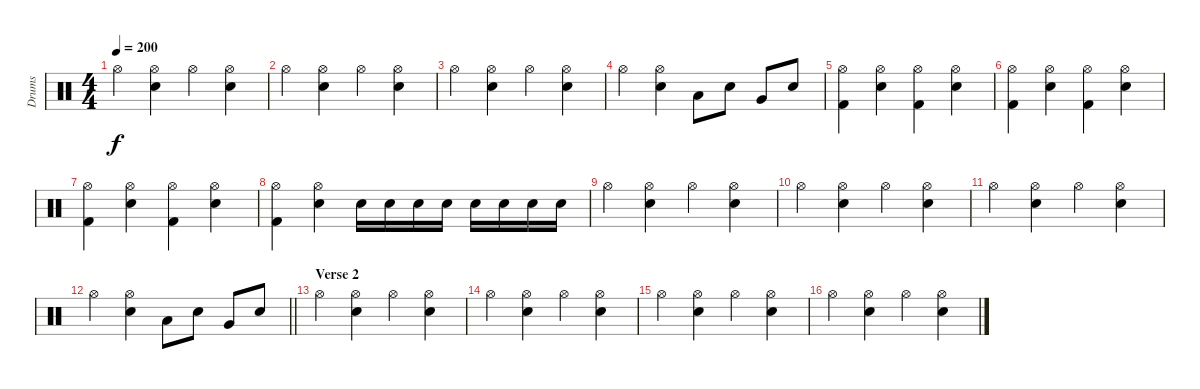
\track ("Drums" "Drums") {instrument percussion}
\staff {score}
\articulation defaults
\ts (4 4)
\tempo 200
\clef neutral
\ks c "Hi-Hat (open)".4{dy f}
("Hi-Hat (open)" "Snare (hit) 2").4 "Hi-Hat (open)".4 ("Hi-Hat (open)" "Snare (hit) 2").4 |
"Hi-Hat (open)".4 ("Hi-Hat (open)" "Snare (hit) 2").4 "Hi-Hat (open)".4 ("Hi-Hat (open)" "Snare (hit) 2").4 |
"Hi-Hat (open)".4 ("Hi-Hat (open)" "Snare (hit) 2").4 "Hi-Hat (open)".4 ("Hi-Hat (open)" "Snare (hit) 2").4 |
"Hi-Hat (open)".4 ("Hi-Hat (open)" "Snare (hit) 2").4 "Low Floor Tom (hit)".8 "Snare (hit) 2".8 "Very Low Tom (hit)".8 "Snare (hit) 2".8 |
("Hi-Hat (open)" "Kick (hit) 2").4 ("Hi-Hat (open)" "Snare (hit) 2").4 ("Hi-Hat (open)" "Kick (hit) 2").4 ("Hi-Hat (open)" "Snare (hit) 2").4 |
("Hi-Hat (open)" "Kick (hit) 2").4 ("Hi-Hat (open)" "Snare (hit) 2").4 ("Hi-Hat (open)" "Kick (hit) 2").4 ("Hi-Hat (open)" "Snare (hit) 2").4 |
("Hi-Hat (open)" "Kick (hit) 2").4 ("Hi-Hat (open)" "Snare (hit) 2").4 ("Hi-Hat (open)" "Kick (hit) 2").4 ("Hi-Hat (open)" "Snare (hit) 2").4 |
("Hi-Hat (open)" "Kick (hit) 2").4 ("Hi-Hat (open)" "Snare (hit) 2").4 "Snare (hit) 2".16 "Snare (hit) 2".16 "Snare (hit) 2".16 "Snare (hit) 2".16 "Snare (hit) 2".16 "Snare (hit) 2".16 "Snare (hit) 2".16 "Snare (hit) 2".16 |
"Hi-Hat (open)".4 ("Hi-Hat (open)" "Snare (hit) 2").4 "Hi-Hat (open)".4 ("Hi-Hat (open)" "Snare (hit) 2").4 |
"Hi-Hat (open)".4 ("Hi-Hat (open)" "Snare (hit) 2").4 "Hi-Hat (open)".4 ("Hi-Hat (open)" "Snare (hit) 2").4 |
"Hi-Hat (open)".4 ("Hi-Hat (open)" "Snare (hit) 2").4 "Hi-Hat (open)".4 ("Hi-Hat (open)" "Snare (hit) 2").4 |
\barLineRight lightlight "Hi-Hat (open)".4
("Hi-Hat (open)" "Snare (hit) 2").4 "Low Floor Tom (hit)".8 "Snare (hit) 2".8 "Very Low Tom (hit)".8 "Snare (hit) 2".8 |
\section ("" "Verse 2")
"Hi-Hat (open)".4 ("Hi-Hat (open)" "Snare (hit) 2").4 "Hi-Hat (open)".4 ("Hi-Hat (open)" "Snare (hit) 2").4 |
"Hi-Hat (open)".4 ("Hi-Hat (open)" "Snare (hit) 2").4 "Hi-Hat (open)".4 ("Hi-Hat (open)" "Snare (hit) 2").4 |
"Hi-Hat (open)".4 ("Hi-Hat (open)" "Snare (hit) 2").4 "Hi-Hat (open)".4 ("Hi-Hat (open)" "Snare (hit) 2").4 |
"Hi-Hat (open)".4 ("Hi-Hat (open)" "Snare (hit) 2").4 "Hi-Hat (open)".4 ("Hi-Hat (open)" "Snare (hit) 2").4
